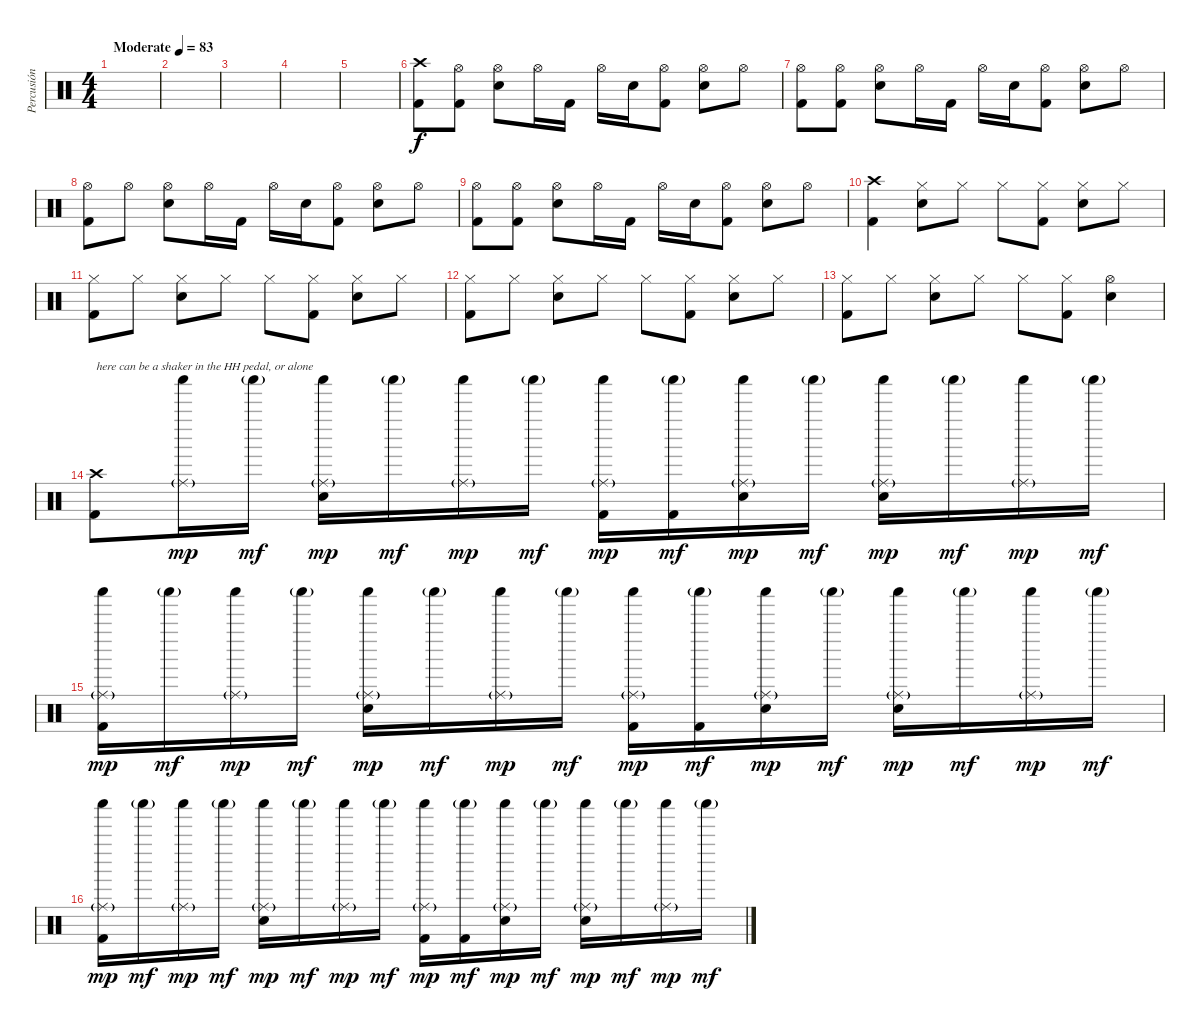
\track ("Percusión" "Percusión") {instrument percussion}
\staff {score}
\articulation defaults
\ts (4 4)
\tempo (83 "Moderate")
\clef neutral
\ks c
|
|
|
|
|
("Crash high (hit)" "Kick (hit) 2").8 ("Hi-Hat (open)" "Kick (hit) 2").8 ("Hi-Hat (open)" "Snare (hit) 2").8 "Hi-Hat (open)".16 "Kick (hit) 2".16 "Hi-Hat (open)".16 "Snare (hit) 2".16 ("Hi-Hat (open)" "Kick (hit) 2").8 ("Hi-Hat (open)" "Snare (hit) 2").8 "Hi-Hat (open)".8 |
("Hi-Hat (open)" "Kick (hit) 2").8 ("Hi-Hat (open)" "Kick (hit) 2").8 ("Hi-Hat (open)" "Snare (hit) 2").8 "Hi-Hat (open)".16 "Kick (hit) 2".16 "Hi-Hat (open)".16 "Snare (hit) 2".16 ("Hi-Hat (open)" "Kick (hit) 2").8 ("Hi-Hat (open)" "Snare (hit) 2").8 "Hi-Hat (open)".8 |
("Hi-Hat (open)" "Kick (hit) 2").8 "Hi-Hat (open)".8 ("Hi-Hat (open)" "Snare (hit) 2").8 "Hi-Hat (open)".16 "Kick (hit) 2".16 "Hi-Hat (open)".16 "Snare (hit) 2".16 ("Hi-Hat (open)" "Kick (hit) 2").8 ("Hi-Hat (open)" "Snare (hit) 2").8 "Hi-Hat (open)".8 |
("Hi-Hat (open)" "Kick (hit) 2").8 ("Hi-Hat (open)" "Kick (hit) 2").8 ("Hi-Hat (open)" "Snare (hit) 2").8 "Hi-Hat (open)".16 "Kick (hit) 2".16 "Hi-Hat (open)".16 "Snare (hit) 2".16 ("Hi-Hat (open)" "Kick (hit) 2").8 ("Hi-Hat (open)" "Snare (hit) 2").8 "Hi-Hat (open)".8 |
("Crash high (hit)" "Kick (hit) 2").4 ("Hi-Hat (closed)" "Snare (hit) 2").8 "Hi-Hat (closed)".8 "Hi-Hat (closed)".8 ("Hi-Hat (closed)" "Kick (hit) 2").8 ("Hi-Hat (closed)" "Snare (hit) 2").8 "Hi-Hat (closed)".8 |
("Hi-Hat (closed)" "Kick (hit) 2").8 "Hi-Hat (closed)".8 ("Hi-Hat (closed)" "Snare (hit) 2").8 "Hi-Hat (closed)".8 "Hi-Hat (closed)".8 ("Hi-Hat (closed)" "Kick (hit) 2").8 ("Hi-Hat (closed)" "Snare (hit) 2").8 "Hi-Hat (closed)".8 |
("Hi-Hat (closed)" "Kick (hit) 2").8 "Hi-Hat (closed)".8 ("Hi-Hat (closed)" "Snare (hit) 2").8 "Hi-Hat (closed)".8 "Hi-Hat (closed)".8 ("Hi-Hat (closed)" "Kick (hit) 2").8 ("Hi-Hat (closed)" "Snare (hit) 2").8 "Hi-Hat (closed)".8 |
("Hi-Hat (closed)" "Kick (hit) 2").8 "Hi-Hat (closed)".8 ("Hi-Hat (closed)" "Snare (hit) 2").8 "Hi-Hat (closed)".8 "Hi-Hat (closed)".8 ("Hi-Hat (closed)" "Kick (hit) 2").8 ("Hi-Hat (open)" "Snare (hit) 2").4 |
("Crash high (hit)" "Kick (hit) 2").8{txt "here can be a shaker in the HH pedal, or alone"} ("Ride (middle)"{g} "Shaker (hit)").16{dy mp} "Shaker (hit)"{g}.16{dy mf} ("Ride (middle)"{g} "Shaker (hit)" "Snare (hit) 2").16{dy mp} "Shaker (hit)"{g}.16{dy mf} ("Ride (middle)"{g} "Shaker (hit)").16{dy mp} "Shaker (hit)"{g}.16{dy mf} ("Ride (middle)"{g} "Shaker (hit)" "Kick (hit) 2").16{dy mp} ("Shaker (hit)"{g} "Kick (hit) 2").16{dy mf} ("Ride (middle)"{g} "Shaker (hit)" "Snare (hit) 2").16{dy mp} "Shaker (hit)"{g}.16{dy mf} ("Ride (middle)"{g} "Shaker (hit)" "Snare (hit) 2").16{dy mp} "Shaker (hit)"{g}.16{dy mf} ("Ride (middle)"{g} "Shaker (hit)").16{dy mp} "Shaker (hit)"{g}.16{dy mf} |
("Ride (middle)"{g} "Shaker (hit)" "Kick (hit) 2").16{dy mp} "Shaker (hit)"{g}.16{dy mf} ("Ride (middle)"{g} "Shaker (hit)").16{dy mp} "Shaker (hit)"{g}.16{dy mf} ("Ride (middle)"{g} "Shaker (hit)" "Snare (hit) 2").16{dy mp} "Shaker (hit)"{g}.16{dy mf} ("Ride (middle)"{g} "Shaker (hit)").16{dy mp} "Shaker (hit)"{g}.16{dy mf} ("Ride (middle)"{g} "Shaker (hit)" "Kick (hit) 2").16{dy mp} ("Shaker (hit)"{g} "Kick (hit) 2").16{dy mf} ("Ride (middle)"{g} "Shaker (hit)" "Snare (hit) 2").16{dy mp} "Shaker (hit)"{g}.16{dy mf} ("Ride (middle)"{g} "Shaker (hit)" "Snare (hit) 2").16{dy mp} "Shaker (hit)"{g}.16{dy mf} ("Ride (middle)"{g} "Shaker (hit)").16{dy mp} "Shaker (hit)"{g}.16{dy mf} |
("Ride (middle)"{g} "Shaker (hit)" "Kick (hit) 2").16{dy mp} "Shaker (hit)"{g}.16{dy mf} ("Ride (middle)"{g} "Shaker (hit)").16{dy mp} "Shaker (hit)"{g}.16{dy mf} ("Ride (middle)"{g} "Shaker (hit)" "Snare (hit) 2").16{dy mp} "Shaker (hit)"{g}.16{dy mf} ("Ride (middle)"{g} "Shaker (hit)").16{dy mp} "Shaker (hit)"{g}.16{dy mf} ("Ride (middle)"{g} "Shaker (hit)" "Kick (hit) 2").16{dy mp} ("Shaker (hit)"{g} "Kick (hit) 2").16{dy mf} ("Ride (middle)"{g} "Shaker (hit)" "Snare (hit) 2").16{dy mp} "Shaker (hit)"{g}.16{dy mf} ("Ride (middle)"{g} "Shaker (hit)" "Snare (hit) 2").16{dy mp} "Shaker (hit)"{g}.16{dy mf} ("Ride (middle)"{g} "Shaker (hit)").16{dy mp} "Shaker (hit)"{g}.16{dy mf}
